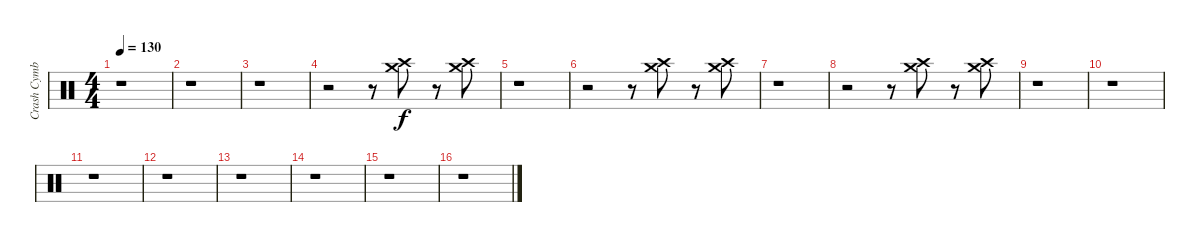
\track ("Crash Cymbal" "Crash Cymb") {instrument percussion}
\staff {score}
\articulation defaults
\ts (4 4)
\tempo 130
\clef neutral
\ks c
r.1{dy f} |
r.1 |
r.1 |
r.2 r.8 ("Crash high (hit)" "Crash medium (hit)").8 r.8 ("Crash high (hit)" "Crash medium (hit)").8 |
r.1 |
r.2 r.8 ("Crash high (hit)" "Crash medium (hit)").8 r.8 ("Crash high (hit)" "Crash medium (hit)").8 |
r.1 |
r.2 r.8 ("Crash high (hit)" "Crash medium (hit)").8 r.8 ("Crash high (hit)" "Crash medium (hit)").8 |
r.1 |
r.1 |
r.1 |
r.1 |
r.1 |
r.1 |
r.1 |
r.1
